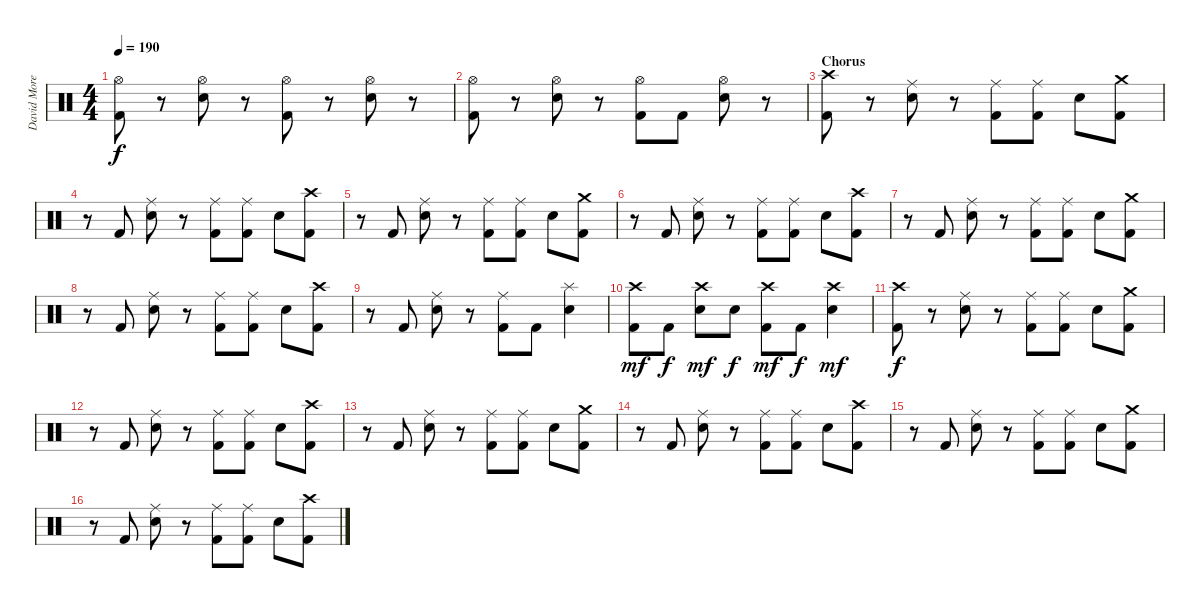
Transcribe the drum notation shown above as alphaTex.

\track ("David Moreno" "David More") {instrument percussion}
\staff {score}
\articulation defaults
\ts (4 4)
\tempo 190
\clef neutral
\ks c
("Hi-Hat (open)" "Kick (hit) 2").8{dy f} r.8 ("Hi-Hat (open)" "Snare (hit) 2").8 r.8 ("Hi-Hat (open)" "Kick (hit) 2").8 r.8 ("Hi-Hat (open)" "Snare (hit) 2").8 r.8 |
("Hi-Hat (open)" "Kick (hit) 2").8 r.8 ("Hi-Hat (open)" "Snare (hit) 2").8 r.8 ("Hi-Hat (open)" "Kick (hit) 2").8 "Kick (hit) 2".8 ("Hi-Hat (open)" "Snare (hit) 2").8 r.8 |
\section ("" "Chorus")
("Crash high (hit)" "Kick (hit) 2").8 r.8 ("Ride (middle)" "Snare (hit) 2").8 r.8 ("Ride (middle)" "Kick (hit) 2").8 ("Ride (middle)" "Kick (hit) 2").8 "Snare (hit) 2".8 ("Crash medium (hit)" "Kick (hit) 2").8 |
r.8 "Kick (hit) 2".8 ("Ride (middle)" "Snare (hit) 2").8 r.8 ("Ride (middle)" "Kick (hit) 2").8 ("Ride (middle)" "Kick (hit) 2").8 "Snare (hit) 2".8 ("Crash high (hit)" "Kick (hit) 2").8 |
r.8 "Kick (hit) 2".8 ("Ride (middle)" "Snare (hit) 2").8 r.8 ("Ride (middle)" "Kick (hit) 2").8 ("Ride (middle)" "Kick (hit) 2").8 "Snare (hit) 2".8 ("Crash medium (hit)" "Kick (hit) 2").8 |
r.8 "Kick (hit) 2".8 ("Ride (middle)" "Snare (hit) 2").8 r.8 ("Ride (middle)" "Kick (hit) 2").8 ("Ride (middle)" "Kick (hit) 2").8 "Snare (hit) 2".8 ("Crash high (hit)" "Kick (hit) 2").8 |
r.8 "Kick (hit) 2".8 ("Ride (middle)" "Snare (hit) 2").8 r.8 ("Ride (middle)" "Kick (hit) 2").8 ("Ride (middle)" "Kick (hit) 2").8 "Snare (hit) 2".8 ("Crash medium (hit)" "Kick (hit) 2").8 |
r.8 "Kick (hit) 2".8 ("Ride (middle)" "Snare (hit) 2").8 r.8 ("Ride (middle)" "Kick (hit) 2").8 ("Ride (middle)" "Kick (hit) 2").8 "Snare (hit) 2".8 ("Crash high (hit)" "Kick (hit) 2").8 |
r.8 "Kick (hit) 2".8 ("Ride (middle)" "Snare (hit) 2").8 r.8 ("Ride (middle)" "Kick (hit) 2").8 "Kick (hit) 2".8 ("Splash (hit)" "Snare (hit) 2").4 |
("Crash high (hit)" "Kick (hit) 2").8{dy mf} "Kick (hit) 2".8{dy f} ("Crash high (hit)" "Snare (hit) 2").8{dy mf} "Snare (hit) 2".8{dy f} ("Crash high (hit)" "Kick (hit) 2").8{dy mf} "Kick (hit) 2".8{dy f} ("Crash high (hit)" "Snare (hit) 2").4{dy mf} |
("Crash high (hit)" "Kick (hit) 2").8{dy f} r.8 ("Ride (middle)" "Snare (hit) 2").8 r.8 ("Ride (middle)" "Kick (hit) 2").8 ("Ride (middle)" "Kick (hit) 2").8 "Snare (hit) 2".8 ("Crash medium (hit)" "Kick (hit) 2").8 |
r.8 "Kick (hit) 2".8 ("Ride (middle)" "Snare (hit) 2").8 r.8 ("Ride (middle)" "Kick (hit) 2").8 ("Ride (middle)" "Kick (hit) 2").8 "Snare (hit) 2".8 ("Crash high (hit)" "Kick (hit) 2").8 |
r.8 "Kick (hit) 2".8 ("Ride (middle)" "Snare (hit) 2").8 r.8 ("Ride (middle)" "Kick (hit) 2").8 ("Ride (middle)" "Kick (hit) 2").8 "Snare (hit) 2".8 ("Crash medium (hit)" "Kick (hit) 2").8 |
r.8 "Kick (hit) 2".8 ("Ride (middle)" "Snare (hit) 2").8 r.8 ("Ride (middle)" "Kick (hit) 2").8 ("Ride (middle)" "Kick (hit) 2").8 "Snare (hit) 2".8 ("Crash high (hit)" "Kick (hit) 2").8 |
r.8 "Kick (hit) 2".8 ("Ride (middle)" "Snare (hit) 2").8 r.8 ("Ride (middle)" "Kick (hit) 2").8 ("Ride (middle)" "Kick (hit) 2").8 "Snare (hit) 2".8 ("Crash medium (hit)" "Kick (hit) 2").8 |
r.8 "Kick (hit) 2".8 ("Ride (middle)" "Snare (hit) 2").8 r.8 ("Ride (middle)" "Kick (hit) 2").8 ("Ride (middle)" "Kick (hit) 2").8 "Snare (hit) 2".8 ("Crash high (hit)" "Kick (hit) 2").8
